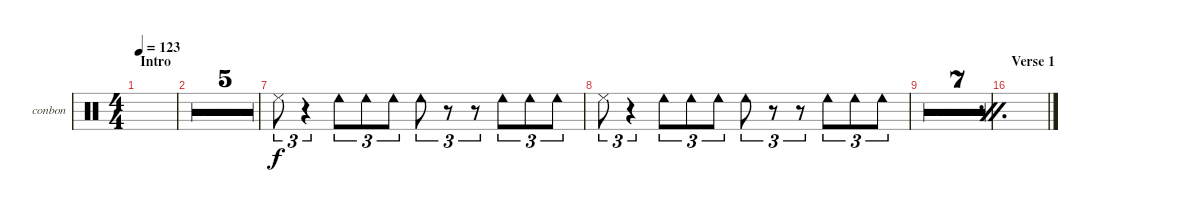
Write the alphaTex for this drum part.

\defaultSystemsLayout 4
\bracketExtendMode groupsimilarinstruments
\firstSystemTrackNameOrientation horizontal
\otherSystemsTrackNameOrientation horizontal
\track ("Bongos N Congas" "conbon") {multiBarRest instrument percussion}
\staff {score}
\articulation defaults
\ts (4 4)
\section ("" "Intro")
\tempo 123
\clef neutral
\ks c
|
|
|
|
|
|
"Cowbell low (tip)".8{tu (3 2)} r.4{tu (3 2)} "Cowbell low (hit)".8{tu (3 2)} "Cowbell low (hit)".8{tu (3 2)} "Cowbell low (hit)".8{tu (3 2)} "Cowbell low (hit)".8{tu (3 2)} r.8{tu (3 2)} r.8{tu (3 2)} "Cowbell low (hit)".8{tu (3 2)} "Cowbell low (hit)".8{tu (3 2)} "Cowbell low (hit)".8{tu (3 2)} |
"Cowbell low (tip)".8{tu (3 2)} r.4{tu (3 2)} "Cowbell low (hit)".8{tu (3 2)} "Cowbell low (hit)".8{tu (3 2)} "Cowbell low (hit)".8{tu (3 2)} "Cowbell low (hit)".8{tu (3 2)} r.8{tu (3 2)} r.8{tu (3 2)} "Cowbell low (hit)".8{tu (3 2)} "Cowbell low (hit)".8{tu (3 2)} "Cowbell low (hit)".8{tu (3 2)} |
\simile firstofdouble
|
\simile secondofdouble
|
\simile firstofdouble
|
\simile secondofdouble
|
\simile firstofdouble
|
\simile secondofdouble
|
\simile firstofdouble
|
\section ("" "Verse 1")
\simile secondofdouble
